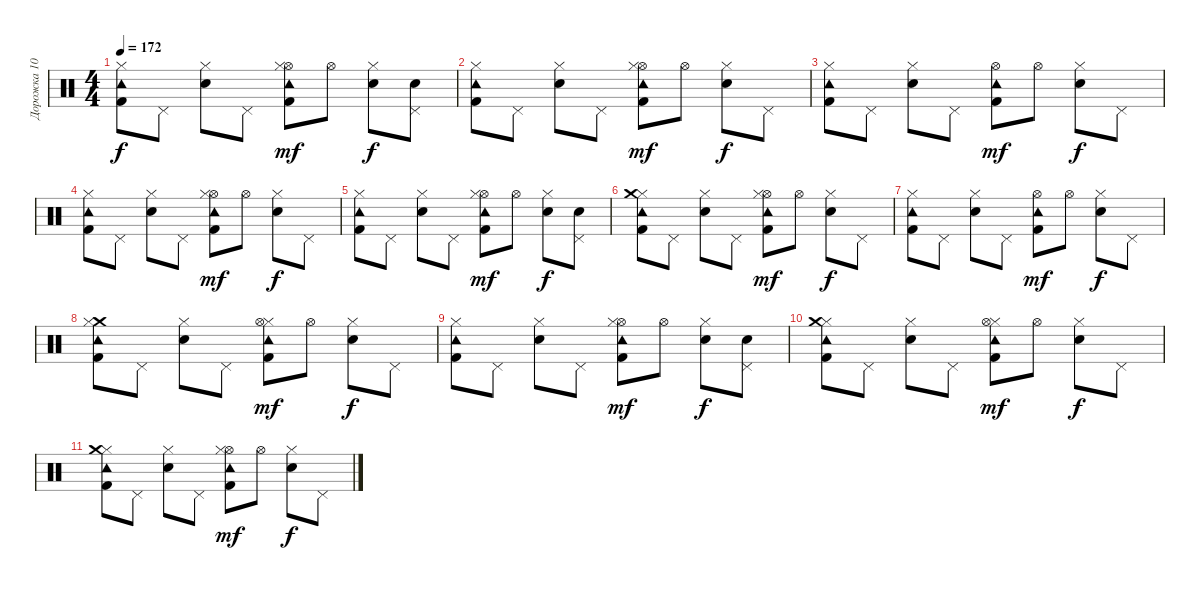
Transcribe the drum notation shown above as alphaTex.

\track ("Дорожка 10" "Дорожка 10") {instrument percussion}
\staff {score}
\articulation defaults
\ts (4 4)
\tempo 172
\clef neutral
\ks c
("Hi-Hat (closed)" "Tambourine (hit)" "Kick (hit) 2").8{dy f} "Pedal Hi-Hat (hit)".8 ("Hi-Hat (closed)" "Snare (hit) 2").8 "Pedal Hi-Hat (hit)".8 ("Kick (hit) 2" "Hi-Hat (open)" "Hi-Hat (closed)" "Tambourine (hit)").8{dy mf} "Hi-Hat (open)".8 ("Snare (hit) 2" "Hi-Hat (closed)").8{dy f} ("Snare (hit) 2" "Pedal Hi-Hat (hit)").8 |
("Kick (hit) 2" "Hi-Hat (closed)" "Tambourine (hit)").8 "Pedal Hi-Hat (hit)".8 ("Hi-Hat (closed)" "Snare (hit) 2").8 "Pedal Hi-Hat (hit)".8 ("Hi-Hat (open)" "Tambourine (hit)" "Kick (hit) 2" "Hi-Hat (closed)").8{dy mf} "Hi-Hat (open)".8 ("Snare (hit) 2" "Hi-Hat (closed)").8{dy f} "Pedal Hi-Hat (hit)".8 |
("Tambourine (hit)" "Kick (hit) 2" "Hi-Hat (closed)").8 "Pedal Hi-Hat (hit)".8 ("Snare (hit) 2" "Hi-Hat (closed)").8 "Pedal Hi-Hat (hit)".8 ("Hi-Hat (open)" "Kick (hit) 2" "Tambourine (hit)").8{dy mf} "Hi-Hat (open)".8 ("Snare (hit) 2" "Hi-Hat (closed)").8{dy f} "Pedal Hi-Hat (hit)".8 |
("Kick (hit) 2" "Hi-Hat (closed)" "Tambourine (hit)").8 "Pedal Hi-Hat (hit)".8 ("Snare (hit) 2" "Hi-Hat (closed)").8 "Pedal Hi-Hat (hit)".8 ("Hi-Hat (open)" "Tambourine (hit)" "Kick (hit) 2" "Hi-Hat (closed)").8{dy mf} "Hi-Hat (open)".8 ("Snare (hit) 2" "Hi-Hat (closed)").8{dy f} "Pedal Hi-Hat (hit)".8 |
("Kick (hit) 2" "Hi-Hat (closed)" "Tambourine (hit)").8 "Pedal Hi-Hat (hit)".8 ("Snare (hit) 2" "Hi-Hat (closed)").8 "Pedal Hi-Hat (hit)".8 ("Kick (hit) 2" "Hi-Hat (open)" "Hi-Hat (closed)" "Tambourine (hit)").8{dy mf} "Hi-Hat (open)".8 ("Snare (hit) 2" "Hi-Hat (closed)").8{dy f} ("Snare (hit) 2" "Pedal Hi-Hat (hit)").8 |
("Tambourine (hit)" "Kick (hit) 2" "Hi-Hat (closed)" "Crash medium (hit)").8 "Pedal Hi-Hat (hit)".8 ("Hi-Hat (closed)" "Snare (hit) 2").8 "Pedal Hi-Hat (hit)".8 ("Hi-Hat (open)" "Tambourine (hit)" "Kick (hit) 2" "Hi-Hat (closed)").8{dy mf} "Hi-Hat (open)".8 ("Hi-Hat (closed)" "Snare (hit) 2").8{dy f} "Pedal Hi-Hat (hit)".8 |
("Hi-Hat (closed)" "Tambourine (hit)" "Kick (hit) 2").8 "Pedal Hi-Hat (hit)".8 ("Snare (hit) 2" "Hi-Hat (closed)").8 "Pedal Hi-Hat (hit)".8 ("Hi-Hat (open)" "Tambourine (hit)" "Kick (hit) 2").8{dy mf} "Hi-Hat (open)".8 ("Snare (hit) 2" "Hi-Hat (closed)").8{dy f} "Pedal Hi-Hat (hit)".8 |
("Crash medium (hit)" "Tambourine (hit)" "Hi-Hat (closed)" "Kick (hit) 2").8 "Pedal Hi-Hat (hit)".8 ("Hi-Hat (closed)" "Snare (hit) 2").8 "Pedal Hi-Hat (hit)".8 ("Hi-Hat (closed)" "Tambourine (hit)" "Hi-Hat (open)" "Kick (hit) 2").8{dy mf} "Hi-Hat (open)".8 ("Snare (hit) 2" "Hi-Hat (closed)").8{dy f} "Pedal Hi-Hat (hit)".8 |
("Hi-Hat (closed)" "Tambourine (hit)" "Kick (hit) 2").8 "Pedal Hi-Hat (hit)".8 ("Snare (hit) 2" "Hi-Hat (closed)").8 "Pedal Hi-Hat (hit)".8 ("Kick (hit) 2" "Hi-Hat (open)" "Hi-Hat (closed)" "Tambourine (hit)").8{dy mf} "Hi-Hat (open)".8 ("Snare (hit) 2" "Hi-Hat (closed)").8{dy f} ("Pedal Hi-Hat (hit)" "Snare (hit) 2").8 |
("Kick (hit) 2" "Hi-Hat (closed)" "Tambourine (hit)" "Crash medium (hit)").8 "Pedal Hi-Hat (hit)".8 ("Hi-Hat (closed)" "Snare (hit) 2").8 "Pedal Hi-Hat (hit)".8 ("Hi-Hat (closed)" "Kick (hit) 2" "Tambourine (hit)" "Hi-Hat (open)").8{dy mf} "Hi-Hat (open)".8 ("Snare (hit) 2" "Hi-Hat (closed)").8{dy f} "Pedal Hi-Hat (hit)".8 |
("Tambourine (hit)" "Kick (hit) 2" "Hi-Hat (closed)" "Crash medium (hit)").8 "Pedal Hi-Hat (hit)".8 ("Hi-Hat (closed)" "Snare (hit) 2").8 "Pedal Hi-Hat (hit)".8 ("Hi-Hat (open)" "Tambourine (hit)" "Kick (hit) 2" "Hi-Hat (closed)").8{dy mf} "Hi-Hat (open)".8 ("Hi-Hat (closed)" "Snare (hit) 2").8{dy f} "Pedal Hi-Hat (hit)".8
